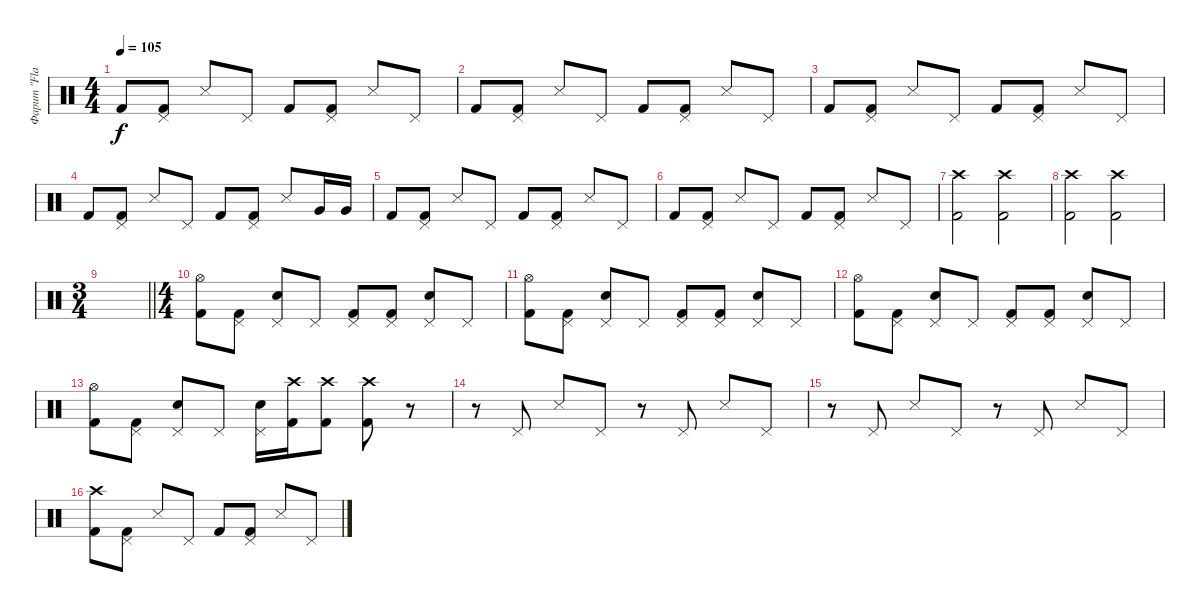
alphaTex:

\track ("Фарит \"Flag\" Шакиров" "Фарит \"Fla") {instrument percussion}
\staff {score}
\articulation defaults
\ts (4 4)
\section ("" "")
\tempo 105
\clef neutral
\ks c "Kick (hit) 2".8{dy f}
("Pedal Hi-Hat (hit)" "Kick (hit) 2").8 "Snare (side stick) 3".8 "Pedal Hi-Hat (hit)".8 "Kick (hit) 2".8 ("Pedal Hi-Hat (hit)" "Kick (hit) 2").8 "Snare (side stick) 3".8 "Pedal Hi-Hat (hit)".8 |
"Kick (hit) 2".8 ("Pedal Hi-Hat (hit)" "Kick (hit) 2").8 "Snare (side stick) 3".8 "Pedal Hi-Hat (hit)".8 "Kick (hit) 2".8 ("Pedal Hi-Hat (hit)" "Kick (hit) 2").8 "Snare (side stick) 3".8 "Pedal Hi-Hat (hit)".8 |
"Kick (hit) 2".8 ("Pedal Hi-Hat (hit)" "Kick (hit) 2").8 "Snare (side stick) 3".8 "Pedal Hi-Hat (hit)".8 "Kick (hit) 2".8 ("Pedal Hi-Hat (hit)" "Kick (hit) 2").8 "Snare (side stick) 3".8 "Pedal Hi-Hat (hit)".8 |
"Kick (hit) 2".8 ("Pedal Hi-Hat (hit)" "Kick (hit) 2").8 "Snare (side stick) 3".8 "Pedal Hi-Hat (hit)".8 "Kick (hit) 2".8 ("Pedal Hi-Hat (hit)" "Kick (hit) 2").8 "Snare (side stick) 3".8 "Very Low Tom (hit)".16 "Very Low Tom (hit)".16 |
"Kick (hit) 2".8 ("Pedal Hi-Hat (hit)" "Kick (hit) 2").8 "Snare (side stick) 3".8 "Pedal Hi-Hat (hit)".8 "Kick (hit) 2".8 ("Pedal Hi-Hat (hit)" "Kick (hit) 2").8 "Snare (side stick) 3".8 "Pedal Hi-Hat (hit)".8 |
"Kick (hit) 2".8 ("Pedal Hi-Hat (hit)" "Kick (hit) 2").8 "Snare (side stick) 3".8 "Pedal Hi-Hat (hit)".8 "Kick (hit) 2".8 ("Pedal Hi-Hat (hit)" "Kick (hit) 2").8 "Snare (side stick) 3".8 "Pedal Hi-Hat (hit)".8 |
("Crash high (hit)" "Kick (hit) 2").2 ("Crash high (hit)" "Kick (hit) 2").2 |
("Crash high (hit)" "Kick (hit) 2").2 ("Crash high (hit)" "Kick (hit) 2").2 |
\ts (3 4)
\barLineRight lightlight
|
\ts (4 4)
\section ("" "")
("Hi-Hat (open)" "Kick (hit) 2").8 ("Pedal Hi-Hat (hit)" "Kick (hit) 2").8 ("Pedal Hi-Hat (hit)" "Electric Snare (hit)").8 "Pedal Hi-Hat (hit)".8 ("Pedal Hi-Hat (hit)" "Kick (hit) 2").8 ("Pedal Hi-Hat (hit)" "Kick (hit) 2").8 ("Pedal Hi-Hat (hit)" "Electric Snare (hit)").8 "Pedal Hi-Hat (hit)".8 |
("Hi-Hat (open)" "Kick (hit) 2").8 ("Pedal Hi-Hat (hit)" "Kick (hit) 2").8 ("Pedal Hi-Hat (hit)" "Electric Snare (hit)").8 "Pedal Hi-Hat (hit)".8 ("Pedal Hi-Hat (hit)" "Kick (hit) 2").8 ("Pedal Hi-Hat (hit)" "Kick (hit) 2").8 ("Pedal Hi-Hat (hit)" "Electric Snare (hit)").8 "Pedal Hi-Hat (hit)".8 |
("Hi-Hat (open)" "Kick (hit) 2").8 ("Pedal Hi-Hat (hit)" "Kick (hit) 2").8 ("Pedal Hi-Hat (hit)" "Electric Snare (hit)").8 "Pedal Hi-Hat (hit)".8 ("Pedal Hi-Hat (hit)" "Kick (hit) 2").8 ("Pedal Hi-Hat (hit)" "Kick (hit) 2").8 ("Pedal Hi-Hat (hit)" "Electric Snare (hit)").8 "Pedal Hi-Hat (hit)".8 |
("Hi-Hat (open)" "Kick (hit) 2").8 ("Pedal Hi-Hat (hit)" "Kick (hit) 2").8 ("Pedal Hi-Hat (hit)" "Electric Snare (hit)").8 "Pedal Hi-Hat (hit)".8 ("Pedal Hi-Hat (hit)" "Electric Snare (hit)").16 ("Crash high (hit)" "Kick (hit) 2").16 ("Crash high (hit)" "Kick (hit) 2").8 ("Crash high (hit)" "Kick (hit) 2").8 r.8 |
r.8 "Pedal Hi-Hat (hit)".8 "Snare (side stick) 3".8 "Pedal Hi-Hat (hit)".8 r.8 "Pedal Hi-Hat (hit)".8 "Snare (side stick) 3".8 "Pedal Hi-Hat (hit)".8 |
r.8 "Pedal Hi-Hat (hit)".8 "Snare (side stick) 3".8 "Pedal Hi-Hat (hit)".8 r.8 "Pedal Hi-Hat (hit)".8 "Snare (side stick) 3".8 "Pedal Hi-Hat (hit)".8 |
("Crash high (hit)" "Kick (hit) 2").8 ("Pedal Hi-Hat (hit)" "Kick (hit) 2").8 "Snare (side stick) 3".8 "Pedal Hi-Hat (hit)".8 "Kick (hit) 2".8 ("Pedal Hi-Hat (hit)" "Kick (hit) 2").8 "Snare (side stick) 3".8 "Pedal Hi-Hat (hit)".8
